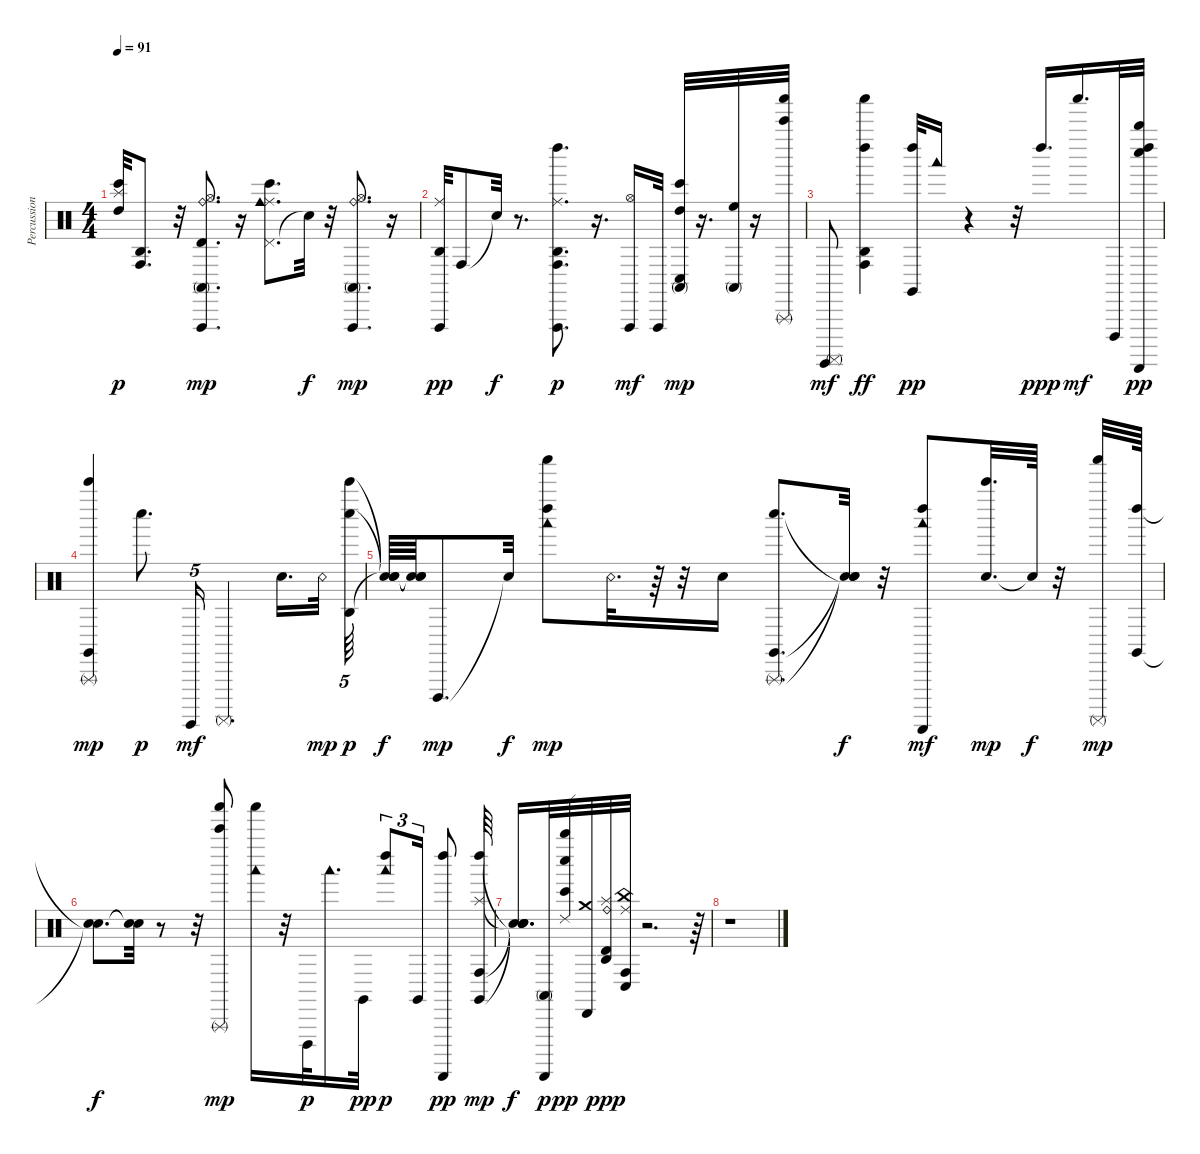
\track ("Percussion Organ" "Percussion") {instrument percussion}
\staff {score}
\articulation defaults
\ts (4 4)
\tempo 91
\clef neutral
\ks c
("High Tom (hit)" "Splash (hit)" "Bongo High (hit)").32{dy p} ("Conga high (hit)" "Agogo high (hit)").8{d} r.32 ("Ride (bell)" "Hi-Hat (open)" "Timbale high (hit)" "Conga high (mute)" "Vibraslap (hit)").8{d dy mp} r.16 ("Pedal Hi-Hat (hit)" "Ride (middle)" "Bongo High (hit)" "Cowbell medium (hit)").8{d} "Snare (hit)"{t}.32{dy f} r.32 ("Hi-Hat (open)" "Ride (bell)" "Conga high (mute)" "Vibraslap (hit)").8{d dy mp} r.16 |
("Vibraslap (hit)" "Ride (middle)" "Agogo high (hit)").32{dy pp} "Conga high (hit)".8 "Snare (hit)"{t}.32{dy f} r.8{d} ("Ride (middle)" "Vibraslap (hit)" "Agogo high (hit)" "Conga high (hit)" "Left Maraca (hit)").8{d dy p} r.16{d} ("Vibraslap (hit)" "Hi-Hat (open)").16{dy mf} "Vibraslap (hit)".32 ("Bongo High (hit)" "Conga high (mute)" "Conga low (hit)" "High Tom (hit)").32{dy mp} r.16{d} ("Conga high (mute)" "High Floor Tom (hit)").32 r.16 ("Triangle (rnute)" "Shaker (hit)" "Bell Tree (hit)").32 |
("Surdo (hit)" "Surdo (mute)").8{dy mf} ("Conga high (hit)" "Shaker (hit)" "Left Maraca (hit)" "Agogo high (hit)").4{dy ff} ("Left Maraca (hit)" "Claves (hit)").32{dy pp} "Woodblock low (hit)".16 r.4 r.32 "Left Maraca (hit)".16{d dy ppp} "Shaker (hit)".16{d dy mf} "Cuica (open)".32 ("Left Maraca (hit)" "Whistle high (hit)" "Whistle low (hit)" "Guiro (scrap-return)").32{dy pp} |
("Triangle (rnute)" "Bell Tree (hit)" "Claves (hit)").4{dy mp} "Whistle low (hit)".8{d dy p} "Surdo (hit)".16{tu (5 4) dy mf} "Surdo (mute)".4{d} "Snare (hit)".16{d} "Snare (rim shot)".32{dy mp} ("Agogo high (hit)" "Bell Tree (hit)" "Whistle low (hit)").64{tu (5 4) dy p} |
("Snare (hit)"{t} "Snare (hit)"{t} "Snare (hit)"{t}).64{dy f} ("Snare (hit)"{t} "Snare (hit)"{t} "Snare (hit)"{t}).64 "Cuica (open)".8{d dy mp} "Snare (hit)"{t}.32{dy f} ("Shaker (hit)" "Left Maraca (hit)" "Woodblock low (hit)").8{dy mp} "Snare (rim shot)".32{d} r.64 r.32 "Snare (hit)".16 ("Claves (hit)" "Triangle (rnute)" "Whistle low (hit)").8{d} ("Snare (hit)"{t} "Snare (hit)"{t} "Snare (hit)"{t}).32{dy f} r.32 ("Left Maraca (hit)" "Woodblock low (hit)" "Guiro (scrap-return)").8{dy mf} ("Snare (hit)" "Bell Tree (hit)").32{d dy mp} "Snare (hit)"{t}.64{dy f} r.32 ("Surdo (mute)" "Shaker (hit)").32{dy mp} ("Claves (hit)" "Left Maraca (hit)").64 |
("Snare (hit)"{t} "Snare (hit)"{t}).8{d dy f} ("Snare (hit)"{t} "Snare (hit)"{t}).32 r.8 r.32 ("Shaker (hit)" "Bell Tree (hit)" "Triangle (rnute)").8{dy mp} ("Woodblock low (hit)" "Shaker (hit)").16 r.32 "Cuica (open)".32{dy p} "Woodblock low (hit)".16{d} "Claves (hit)".32{dy pp} ("Left Maraca (hit)" "Woodblock low (hit)").8{tu (3 2) dy p} "Claves (hit)".16{tu (3 2)} ("Guiro (scrap-return)" "Left Maraca (hit)").8{dy pp} ("Splash (hit)" "Left Maraca (hit)" "Conga high (hit)" "Claves (hit)").64{dy mp} |
("Snare (hit)"{t} "Snare (hit)"{t} "Snare (hit)"{t} "Snare (hit)"{t}).16{d dy f} ("Guiro (scrap-return)" "Conga high (mute)").32{dy p} ("Whistle low (hit)" "Bongo High (hit)" "Whistle high (hit)" "Ride (edge) 2").32{dy pp} ("Crash medium (hit)" "Cabasa (hit)").32 ("Agogo high (hit)" "Splash (hit)" "Ride (bell)" "Timbale high (hit)").32{dy ppp} ("China (hit)" "Conga low (hit)" "Conga high (hit)" "Ride (middle)").32 r.2{d} r.64 |
r.1
